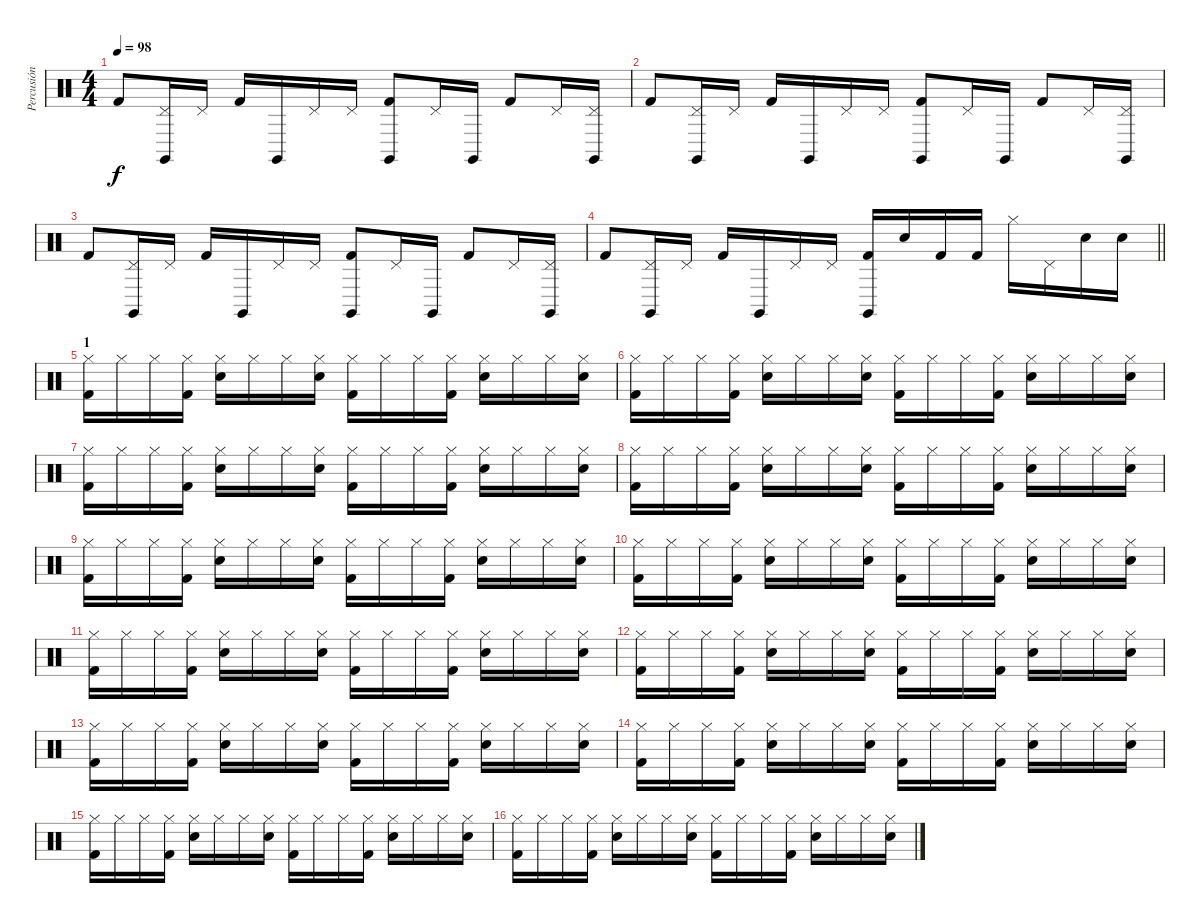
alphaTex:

\track ("Percusión" "Percusión") {instrument percussion}
\staff {score}
\articulation defaults
\ts (4 4)
\tempo 98
\clef neutral
\ks c "Kick (hit) 2".8{dy f}
("Claves (hit)" "Pedal Hi-Hat (hit)").16 "Pedal Hi-Hat (hit)".16 "Kick (hit) 2".16 "Claves (hit)".16 "Pedal Hi-Hat (hit)".16 "Pedal Hi-Hat (hit)".16 ("Claves (hit)" "Kick (hit) 2").8 "Pedal Hi-Hat (hit)".16 "Claves (hit)".16 "Kick (hit) 2".8 "Pedal Hi-Hat (hit)".16 ("Claves (hit)" "Pedal Hi-Hat (hit)").16 |
"Kick (hit) 2".8 ("Claves (hit)" "Pedal Hi-Hat (hit)").16 "Pedal Hi-Hat (hit)".16 "Kick (hit) 2".16 "Claves (hit)".16 "Pedal Hi-Hat (hit)".16 "Pedal Hi-Hat (hit)".16 ("Claves (hit)" "Kick (hit) 2").8 "Pedal Hi-Hat (hit)".16 "Claves (hit)".16 "Kick (hit) 2".8 "Pedal Hi-Hat (hit)".16 ("Claves (hit)" "Pedal Hi-Hat (hit)").16 |
"Kick (hit) 2".8 ("Claves (hit)" "Pedal Hi-Hat (hit)").16 "Pedal Hi-Hat (hit)".16 "Kick (hit) 2".16 "Claves (hit)".16 "Pedal Hi-Hat (hit)".16 "Pedal Hi-Hat (hit)".16 ("Claves (hit)" "Kick (hit) 2").8 "Pedal Hi-Hat (hit)".16 "Claves (hit)".16 "Kick (hit) 2".8 "Pedal Hi-Hat (hit)".16 ("Claves (hit)" "Pedal Hi-Hat (hit)").16 |
\barLineRight lightlight "Kick (hit) 2".8
("Claves (hit)" "Pedal Hi-Hat (hit)").16 "Pedal Hi-Hat (hit)".16 "Kick (hit) 2".16 "Claves (hit)".16 "Pedal Hi-Hat (hit)".16 "Pedal Hi-Hat (hit)".16 ("Claves (hit)" "Kick (hit) 2").16 "Snare (hit) 2".16 "Kick (hit) 2".16 "Kick (hit) 2".16 "Hi-Hat (closed)".16 "Pedal Hi-Hat (hit)".16 "Snare (hit) 2".16 "Snare (hit) 2".16 |
\section ("" "1")
("Hi-Hat (closed)" "Kick (hit) 2").16 "Hi-Hat (closed)".16 "Hi-Hat (closed)".16 ("Hi-Hat (closed)" "Kick (hit) 2").16 ("Hi-Hat (closed)" "Snare (hit) 2").16 "Hi-Hat (closed)".16 "Hi-Hat (closed)".16 ("Hi-Hat (closed)" "Snare (hit) 2").16 ("Hi-Hat (closed)" "Kick (hit) 2").16 "Hi-Hat (closed)".16 "Hi-Hat (closed)".16 ("Hi-Hat (closed)" "Kick (hit) 2").16 ("Hi-Hat (closed)" "Snare (hit) 2").16 "Hi-Hat (closed)".16 "Hi-Hat (closed)".16 ("Hi-Hat (closed)" "Snare (hit) 2").16 |
("Hi-Hat (closed)" "Kick (hit) 2").16 "Hi-Hat (closed)".16 "Hi-Hat (closed)".16 ("Hi-Hat (closed)" "Kick (hit) 2").16 ("Hi-Hat (closed)" "Snare (hit) 2").16 "Hi-Hat (closed)".16 "Hi-Hat (closed)".16 ("Hi-Hat (closed)" "Snare (hit) 2").16 ("Hi-Hat (closed)" "Kick (hit) 2").16 "Hi-Hat (closed)".16 "Hi-Hat (closed)".16 ("Hi-Hat (closed)" "Kick (hit) 2").16 ("Hi-Hat (closed)" "Snare (hit) 2").16 "Hi-Hat (closed)".16 "Hi-Hat (closed)".16 ("Hi-Hat (closed)" "Snare (hit) 2").16 |
("Hi-Hat (closed)" "Kick (hit) 2").16 "Hi-Hat (closed)".16 "Hi-Hat (closed)".16 ("Hi-Hat (closed)" "Kick (hit) 2").16 ("Hi-Hat (closed)" "Snare (hit) 2").16 "Hi-Hat (closed)".16 "Hi-Hat (closed)".16 ("Hi-Hat (closed)" "Snare (hit) 2").16 ("Hi-Hat (closed)" "Kick (hit) 2").16 "Hi-Hat (closed)".16 "Hi-Hat (closed)".16 ("Hi-Hat (closed)" "Kick (hit) 2").16 ("Hi-Hat (closed)" "Snare (hit) 2").16 "Hi-Hat (closed)".16 "Hi-Hat (closed)".16 ("Hi-Hat (closed)" "Snare (hit) 2").16 |
("Hi-Hat (closed)" "Kick (hit) 2").16 "Hi-Hat (closed)".16 "Hi-Hat (closed)".16 ("Hi-Hat (closed)" "Kick (hit) 2").16 ("Hi-Hat (closed)" "Snare (hit) 2").16 "Hi-Hat (closed)".16 "Hi-Hat (closed)".16 ("Hi-Hat (closed)" "Snare (hit) 2").16 ("Hi-Hat (closed)" "Kick (hit) 2").16 "Hi-Hat (closed)".16 "Hi-Hat (closed)".16 ("Hi-Hat (closed)" "Kick (hit) 2").16 ("Hi-Hat (closed)" "Snare (hit) 2").16 "Hi-Hat (closed)".16 "Hi-Hat (closed)".16 ("Hi-Hat (closed)" "Snare (hit) 2").16 |
("Hi-Hat (closed)" "Kick (hit) 2").16 "Hi-Hat (closed)".16 "Hi-Hat (closed)".16 ("Hi-Hat (closed)" "Kick (hit) 2").16 ("Hi-Hat (closed)" "Snare (hit) 2").16 "Hi-Hat (closed)".16 "Hi-Hat (closed)".16 ("Hi-Hat (closed)" "Snare (hit) 2").16 ("Hi-Hat (closed)" "Kick (hit) 2").16 "Hi-Hat (closed)".16 "Hi-Hat (closed)".16 ("Hi-Hat (closed)" "Kick (hit) 2").16 ("Hi-Hat (closed)" "Snare (hit) 2").16 "Hi-Hat (closed)".16 "Hi-Hat (closed)".16 ("Hi-Hat (closed)" "Snare (hit) 2").16 |
("Hi-Hat (closed)" "Kick (hit) 2").16 "Hi-Hat (closed)".16 "Hi-Hat (closed)".16 ("Hi-Hat (closed)" "Kick (hit) 2").16 ("Hi-Hat (closed)" "Snare (hit) 2").16 "Hi-Hat (closed)".16 "Hi-Hat (closed)".16 ("Hi-Hat (closed)" "Snare (hit) 2").16 ("Hi-Hat (closed)" "Kick (hit) 2").16 "Hi-Hat (closed)".16 "Hi-Hat (closed)".16 ("Hi-Hat (closed)" "Kick (hit) 2").16 ("Hi-Hat (closed)" "Snare (hit) 2").16 "Hi-Hat (closed)".16 "Hi-Hat (closed)".16 ("Hi-Hat (closed)" "Snare (hit) 2").16 |
("Hi-Hat (closed)" "Kick (hit) 2").16 "Hi-Hat (closed)".16 "Hi-Hat (closed)".16 ("Hi-Hat (closed)" "Kick (hit) 2").16 ("Hi-Hat (closed)" "Snare (hit) 2").16 "Hi-Hat (closed)".16 "Hi-Hat (closed)".16 ("Hi-Hat (closed)" "Snare (hit) 2").16 ("Hi-Hat (closed)" "Kick (hit) 2").16 "Hi-Hat (closed)".16 "Hi-Hat (closed)".16 ("Hi-Hat (closed)" "Kick (hit) 2").16 ("Hi-Hat (closed)" "Snare (hit) 2").16 "Hi-Hat (closed)".16 "Hi-Hat (closed)".16 ("Hi-Hat (closed)" "Snare (hit) 2").16 |
("Hi-Hat (closed)" "Kick (hit) 2").16 "Hi-Hat (closed)".16 "Hi-Hat (closed)".16 ("Hi-Hat (closed)" "Kick (hit) 2").16 ("Hi-Hat (closed)" "Snare (hit) 2").16 "Hi-Hat (closed)".16 "Hi-Hat (closed)".16 ("Hi-Hat (closed)" "Snare (hit) 2").16 ("Hi-Hat (closed)" "Kick (hit) 2").16 "Hi-Hat (closed)".16 "Hi-Hat (closed)".16 ("Hi-Hat (closed)" "Kick (hit) 2").16 ("Hi-Hat (closed)" "Snare (hit) 2").16 "Hi-Hat (closed)".16 "Hi-Hat (closed)".16 ("Hi-Hat (closed)" "Snare (hit) 2").16 |
("Hi-Hat (closed)" "Kick (hit) 2").16 "Hi-Hat (closed)".16 "Hi-Hat (closed)".16 ("Hi-Hat (closed)" "Kick (hit) 2").16 ("Hi-Hat (closed)" "Snare (hit) 2").16 "Hi-Hat (closed)".16 "Hi-Hat (closed)".16 ("Hi-Hat (closed)" "Snare (hit) 2").16 ("Hi-Hat (closed)" "Kick (hit) 2").16 "Hi-Hat (closed)".16 "Hi-Hat (closed)".16 ("Hi-Hat (closed)" "Kick (hit) 2").16 ("Hi-Hat (closed)" "Snare (hit) 2").16 "Hi-Hat (closed)".16 "Hi-Hat (closed)".16 ("Hi-Hat (closed)" "Snare (hit) 2").16 |
("Hi-Hat (closed)" "Kick (hit) 2").16 "Hi-Hat (closed)".16 "Hi-Hat (closed)".16 ("Hi-Hat (closed)" "Kick (hit) 2").16 ("Hi-Hat (closed)" "Snare (hit) 2").16 "Hi-Hat (closed)".16 "Hi-Hat (closed)".16 ("Hi-Hat (closed)" "Snare (hit) 2").16 ("Hi-Hat (closed)" "Kick (hit) 2").16 "Hi-Hat (closed)".16 "Hi-Hat (closed)".16 ("Hi-Hat (closed)" "Kick (hit) 2").16 ("Hi-Hat (closed)" "Snare (hit) 2").16 "Hi-Hat (closed)".16 "Hi-Hat (closed)".16 ("Hi-Hat (closed)" "Snare (hit) 2").16 |
("Hi-Hat (closed)" "Kick (hit) 2").16 "Hi-Hat (closed)".16 "Hi-Hat (closed)".16 ("Hi-Hat (closed)" "Kick (hit) 2").16 ("Hi-Hat (closed)" "Snare (hit) 2").16 "Hi-Hat (closed)".16 "Hi-Hat (closed)".16 ("Hi-Hat (closed)" "Snare (hit) 2").16 ("Hi-Hat (closed)" "Kick (hit) 2").16 "Hi-Hat (closed)".16 "Hi-Hat (closed)".16 ("Hi-Hat (closed)" "Kick (hit) 2").16 ("Hi-Hat (closed)" "Snare (hit) 2").16 "Hi-Hat (closed)".16 "Hi-Hat (closed)".16 ("Hi-Hat (closed)" "Snare (hit) 2").16 |
("Hi-Hat (closed)" "Kick (hit) 2").16 "Hi-Hat (closed)".16 "Hi-Hat (closed)".16 ("Hi-Hat (closed)" "Kick (hit) 2").16 ("Hi-Hat (closed)" "Snare (hit) 2").16 "Hi-Hat (closed)".16 "Hi-Hat (closed)".16 ("Hi-Hat (closed)" "Snare (hit) 2").16 ("Hi-Hat (closed)" "Kick (hit) 2").16 "Hi-Hat (closed)".16 "Hi-Hat (closed)".16 ("Hi-Hat (closed)" "Kick (hit) 2").16 ("Hi-Hat (closed)" "Snare (hit) 2").16 "Hi-Hat (closed)".16 "Hi-Hat (closed)".16 ("Hi-Hat (closed)" "Snare (hit) 2").16
